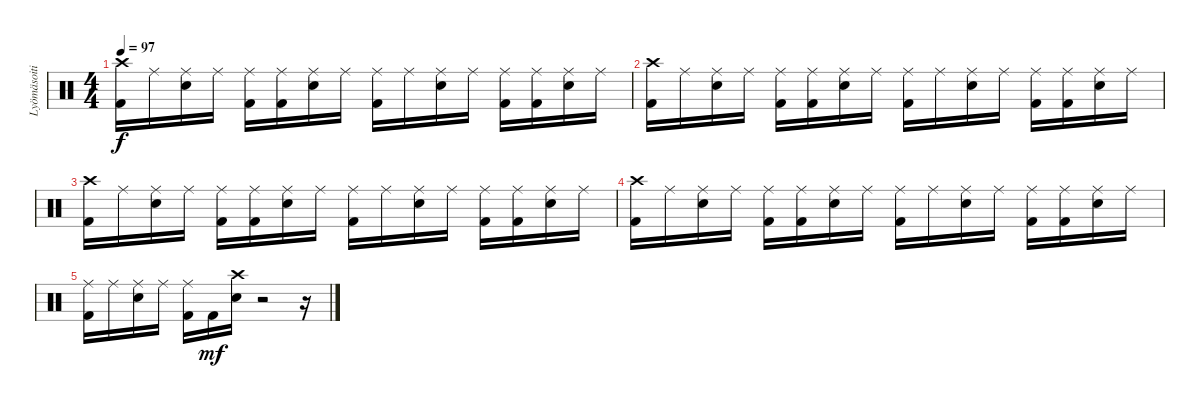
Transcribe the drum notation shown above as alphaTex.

\track ("Lyömäsoitin" "Lyömäsoiti") {mute instrument percussion}
\staff {score}
\articulation defaults
\ts (4 4)
\tempo 97
\clef neutral
\ks c
("Crash high (hit)" "Kick (hit) 2").16{dy f} "Ride (middle)".16 ("Ride (middle)" "Snare (hit) 2").16 "Ride (middle)".16 ("Ride (middle)" "Kick (hit) 2").16 ("Ride (middle)" "Kick (hit) 2").16 ("Ride (middle)" "Snare (hit) 2").16 "Ride (middle)".16 ("Ride (middle)" "Kick (hit) 2").16 "Ride (middle)".16 ("Ride (middle)" "Snare (hit) 2").16 "Ride (middle)".16 ("Ride (middle)" "Kick (hit) 2").16 ("Ride (middle)" "Kick (hit) 2").16 ("Ride (middle)" "Snare (hit) 2").16 "Ride (middle)".16 |
("Crash high (hit)" "Kick (hit) 2").16 "Ride (middle)".16 ("Ride (middle)" "Snare (hit) 2").16 "Ride (middle)".16 ("Ride (middle)" "Kick (hit) 2").16 ("Ride (middle)" "Kick (hit) 2").16 ("Ride (middle)" "Snare (hit) 2").16 "Ride (middle)".16 ("Ride (middle)" "Kick (hit) 2").16 "Ride (middle)".16 ("Ride (middle)" "Snare (hit) 2").16 "Ride (middle)".16 ("Ride (middle)" "Kick (hit) 2").16 ("Ride (middle)" "Kick (hit) 2").16 ("Ride (middle)" "Snare (hit) 2").16 "Ride (middle)".16 |
("Crash high (hit)" "Kick (hit) 2").16 "Ride (middle)".16 ("Ride (middle)" "Snare (hit) 2").16 "Ride (middle)".16 ("Ride (middle)" "Kick (hit) 2").16 ("Ride (middle)" "Kick (hit) 2").16 ("Ride (middle)" "Snare (hit) 2").16 "Ride (middle)".16 ("Ride (middle)" "Kick (hit) 2").16 "Ride (middle)".16 ("Ride (middle)" "Snare (hit) 2").16 "Ride (middle)".16 ("Ride (middle)" "Kick (hit) 2").16 ("Ride (middle)" "Kick (hit) 2").16 ("Ride (middle)" "Snare (hit) 2").16 "Ride (middle)".16 |
("Crash high (hit)" "Kick (hit) 2").16 "Ride (middle)".16 ("Ride (middle)" "Snare (hit) 2").16 "Ride (middle)".16 ("Ride (middle)" "Kick (hit) 2").16 ("Ride (middle)" "Kick (hit) 2").16 ("Ride (middle)" "Snare (hit) 2").16 "Ride (middle)".16 ("Ride (middle)" "Kick (hit) 2").16 "Ride (middle)".16 ("Ride (middle)" "Snare (hit) 2").16 "Ride (middle)".16 ("Ride (middle)" "Kick (hit) 2").16 ("Ride (middle)" "Kick (hit) 2").16 ("Ride (middle)" "Snare (hit) 2").16 "Ride (middle)".16 |
("Ride (middle)" "Kick (hit) 2").16 "Ride (middle)".16 ("Ride (middle)" "Snare (hit) 2").16 "Ride (middle)".16 ("Ride (middle)" "Kick (hit) 2").16 "Kick (hit) 2".16{dy mf} ("Crash high (hit)" "Snare (hit) 2").16 r.2 r.16
